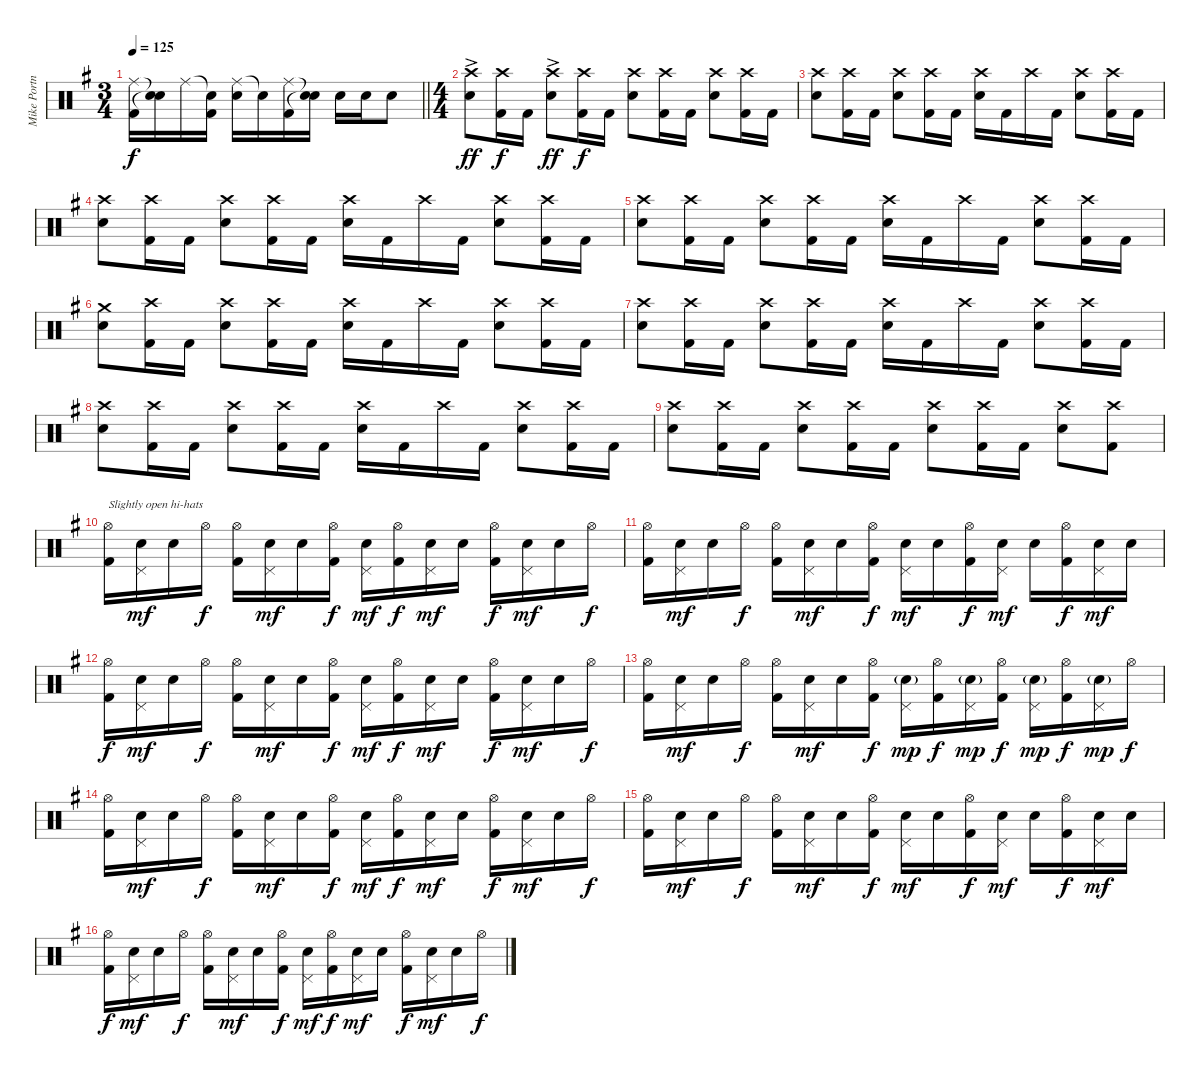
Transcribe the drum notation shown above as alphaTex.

\track ("Mike Portnoy - Drums" "Mike Portn") {instrument percussion}
\staff {score}
\articulation defaults
\ts (3 4)
\tempo 125
\clef neutral
\barLineRight lightlight
\ks g
("Ride (middle)" "Kick (hit) 2").16{dy f} ("Snare (hit)"{t} "Snare (hit)"{t}).16 "Ride (middle)".16 ("Snare (hit)"{t} "Kick (hit) 2").16 ("Ride (middle)" "Snare (hit) 2").16 "Snare (hit)"{t}.16 ("Ride (middle)" "Kick (hit) 2").16 ("Snare (hit)"{t} "Snare (hit)"{t}).16 "Snare (hit) 2".16 "Snare (hit) 2".16 "Snare (hit) 2".8 |
\ts (4 4)
("Crash high (hit)"{ac} "Electric Snare (hit)").8{dy ff} ("Crash high (hit)" "Kick (hit) 2").16{dy f} "Kick (hit) 2".16 ("Crash high (hit)"{ac} "Electric Snare (hit)").8{dy ff} ("Crash high (hit)" "Kick (hit) 2").16{dy f} "Kick (hit) 2".16 ("Crash high (hit)" "Electric Snare (hit)").8 ("Crash high (hit)" "Kick (hit) 2").16 "Kick (hit) 2".16 ("Crash high (hit)" "Electric Snare (hit)").8 ("Crash high (hit)" "Kick (hit) 2").16 "Kick (hit) 2".16 |
("Crash high (hit)" "Electric Snare (hit)").8 ("Crash high (hit)" "Kick (hit) 2").16 "Kick (hit) 2".16 ("Crash high (hit)" "Electric Snare (hit)").8 ("Crash high (hit)" "Kick (hit) 2").16 "Kick (hit) 2".16 ("Crash high (hit)" "Electric Snare (hit)").16 "Kick (hit) 2".16 "Crash high (hit)".16 "Kick (hit) 2".16 ("Crash high (hit)" "Electric Snare (hit)").8 ("Crash high (hit)" "Kick (hit) 2").16 "Kick (hit) 2".16 |
("Crash high (hit)" "Electric Snare (hit)").8 ("Crash high (hit)" "Kick (hit) 2").16 "Kick (hit) 2".16 ("Crash high (hit)" "Electric Snare (hit)").8 ("Crash high (hit)" "Kick (hit) 2").16 "Kick (hit) 2".16 ("Crash high (hit)" "Electric Snare (hit)").16 "Kick (hit) 2".16 "Crash high (hit)".16 "Kick (hit) 2".16 ("Crash high (hit)" "Electric Snare (hit)").8 ("Crash high (hit)" "Kick (hit) 2").16 "Kick (hit) 2".16 |
("Crash high (hit)" "Electric Snare (hit)").8 ("Crash high (hit)" "Kick (hit) 2").16 "Kick (hit) 2".16 ("Crash high (hit)" "Electric Snare (hit)").8 ("Crash high (hit)" "Kick (hit) 2").16 "Kick (hit) 2".16 ("Crash high (hit)" "Electric Snare (hit)").16 "Kick (hit) 2".16 "Crash high (hit)".16 "Kick (hit) 2".16 ("Crash high (hit)" "Electric Snare (hit)").8 ("Crash high (hit)" "Kick (hit) 2").16 "Kick (hit) 2".16 |
("Crash medium (hit)" "Electric Snare (hit)").8 ("Crash high (hit)" "Kick (hit) 2").16 "Kick (hit) 2".16 ("Crash high (hit)" "Electric Snare (hit)").8 ("Crash high (hit)" "Kick (hit) 2").16 "Kick (hit) 2".16 ("Crash high (hit)" "Electric Snare (hit)").16 "Kick (hit) 2".16 "Crash high (hit)".16 "Kick (hit) 2".16 ("Crash high (hit)" "Electric Snare (hit)").8 ("Crash high (hit)" "Kick (hit) 2").16 "Kick (hit) 2".16 |
("Crash high (hit)" "Electric Snare (hit)").8 ("Crash high (hit)" "Kick (hit) 2").16 "Kick (hit) 2".16 ("Crash high (hit)" "Electric Snare (hit)").8 ("Crash high (hit)" "Kick (hit) 2").16 "Kick (hit) 2".16 ("Crash high (hit)" "Electric Snare (hit)").16 "Kick (hit) 2".16 "Crash high (hit)".16 "Kick (hit) 2".16 ("Crash high (hit)" "Electric Snare (hit)").8 ("Crash high (hit)" "Kick (hit) 2").16 "Kick (hit) 2".16 |
("Crash high (hit)" "Electric Snare (hit)").8 ("Crash high (hit)" "Kick (hit) 2").16 "Kick (hit) 2".16 ("Crash high (hit)" "Electric Snare (hit)").8 ("Crash high (hit)" "Kick (hit) 2").16 "Kick (hit) 2".16 ("Crash high (hit)" "Electric Snare (hit)").16 "Kick (hit) 2".16 "Crash high (hit)".16 "Kick (hit) 2".16 ("Crash high (hit)" "Electric Snare (hit)").8 ("Crash high (hit)" "Kick (hit) 2").16 "Kick (hit) 2".16 |
("Crash high (hit)" "Electric Snare (hit)").8 ("Crash high (hit)" "Kick (hit) 2").16 "Kick (hit) 2".16 ("Crash high (hit)" "Electric Snare (hit)").8 ("Crash high (hit)" "Kick (hit) 2").16 "Kick (hit) 2".16 ("Crash high (hit)" "Electric Snare (hit)").8 ("Crash high (hit)" "Kick (hit) 2").16 "Kick (hit) 2".16 ("Crash high (hit)" "Electric Snare (hit)").8 ("Crash high (hit)" "Kick (hit) 2").8 |
("Hi-Hat (open)" "Kick (hit) 2").16{txt "Slightly open hi-hats"} ("Pedal Hi-Hat (hit)" "Electric Snare (hit)").16{dy mf} "Electric Snare (hit)".16 "Hi-Hat (open)".16{dy f} ("Hi-Hat (open)" "Kick (hit) 2").16 ("Pedal Hi-Hat (hit)" "Electric Snare (hit)").16{dy mf} "Electric Snare (hit)".16 ("Hi-Hat (open)" "Kick (hit) 2").16{dy f} ("Pedal Hi-Hat (hit)" "Electric Snare (hit)").16{dy mf} ("Hi-Hat (open)" "Kick (hit) 2").16{dy f} ("Pedal Hi-Hat (hit)" "Electric Snare (hit)").16{dy mf} "Electric Snare (hit)".16 ("Hi-Hat (open)" "Kick (hit) 2").16{dy f} ("Pedal Hi-Hat (hit)" "Electric Snare (hit)").16{dy mf} "Electric Snare (hit)".16 "Hi-Hat (open)".16{dy f} |
("Hi-Hat (open)" "Kick (hit) 2").16 ("Pedal Hi-Hat (hit)" "Electric Snare (hit)").16{dy mf} "Electric Snare (hit)".16 "Hi-Hat (open)".16{dy f} ("Hi-Hat (open)" "Kick (hit) 2").16 ("Pedal Hi-Hat (hit)" "Electric Snare (hit)").16{dy mf} "Electric Snare (hit)".16 ("Hi-Hat (open)" "Kick (hit) 2").16{dy f} ("Pedal Hi-Hat (hit)" "Electric Snare (hit)").16{dy mf} "Electric Snare (hit)".16 ("Hi-Hat (open)" "Kick (hit) 2").16{dy f} ("Pedal Hi-Hat (hit)" "Electric Snare (hit)").16{dy mf} "Electric Snare (hit)".16 ("Hi-Hat (open)" "Kick (hit) 2").16{dy f} ("Pedal Hi-Hat (hit)" "Electric Snare (hit)").16{dy mf} "Electric Snare (hit)".16 |
("Hi-Hat (open)" "Kick (hit) 2").16{dy f} ("Pedal Hi-Hat (hit)" "Electric Snare (hit)").16{dy mf} "Electric Snare (hit)".16 "Hi-Hat (open)".16{dy f} ("Hi-Hat (open)" "Kick (hit) 2").16 ("Pedal Hi-Hat (hit)" "Electric Snare (hit)").16{dy mf} "Electric Snare (hit)".16 ("Hi-Hat (open)" "Kick (hit) 2").16{dy f} ("Pedal Hi-Hat (hit)" "Electric Snare (hit)").16{dy mf} ("Hi-Hat (open)" "Kick (hit) 2").16{dy f} ("Pedal Hi-Hat (hit)" "Electric Snare (hit)").16{dy mf} "Electric Snare (hit)".16 ("Hi-Hat (open)" "Kick (hit) 2").16{dy f} ("Pedal Hi-Hat (hit)" "Electric Snare (hit)").16{dy mf} "Electric Snare (hit)".16 "Hi-Hat (open)".16{dy f} |
("Hi-Hat (open)" "Kick (hit) 2").16 ("Pedal Hi-Hat (hit)" "Electric Snare (hit)").16{dy mf} "Electric Snare (hit)".16 "Hi-Hat (open)".16{dy f} ("Hi-Hat (open)" "Kick (hit) 2").16 ("Pedal Hi-Hat (hit)" "Electric Snare (hit)").16{dy mf} "Electric Snare (hit)".16 ("Hi-Hat (open)" "Kick (hit) 2").16{dy f} ("Pedal Hi-Hat (hit)" "Electric Snare (hit)"{g}).16{dy mp} ("Hi-Hat (open)" "Kick (hit) 2").16{dy f} ("Pedal Hi-Hat (hit)" "Electric Snare (hit)"{g}).16{dy mp} ("Hi-Hat (open)" "Kick (hit) 2").16{dy f} ("Pedal Hi-Hat (hit)" "Electric Snare (hit)"{g}).16{dy mp} ("Hi-Hat (open)" "Kick (hit) 2").16{dy f} ("Pedal Hi-Hat (hit)" "Electric Snare (hit)"{g}).16{dy mp} "Hi-Hat (open)".16{dy f} |
("Hi-Hat (open)" "Kick (hit) 2").16 ("Pedal Hi-Hat (hit)" "Electric Snare (hit)").16{dy mf} "Electric Snare (hit)".16 "Hi-Hat (open)".16{dy f} ("Hi-Hat (open)" "Kick (hit) 2").16 ("Pedal Hi-Hat (hit)" "Electric Snare (hit)").16{dy mf} "Electric Snare (hit)".16 ("Hi-Hat (open)" "Kick (hit) 2").16{dy f} ("Pedal Hi-Hat (hit)" "Electric Snare (hit)").16{dy mf} ("Hi-Hat (open)" "Kick (hit) 2").16{dy f} ("Pedal Hi-Hat (hit)" "Electric Snare (hit)").16{dy mf} "Electric Snare (hit)".16 ("Hi-Hat (open)" "Kick (hit) 2").16{dy f} ("Pedal Hi-Hat (hit)" "Electric Snare (hit)").16{dy mf} "Electric Snare (hit)".16 "Hi-Hat (open)".16{dy f} |
("Hi-Hat (open)" "Kick (hit) 2").16 ("Pedal Hi-Hat (hit)" "Electric Snare (hit)").16{dy mf} "Electric Snare (hit)".16 "Hi-Hat (open)".16{dy f} ("Hi-Hat (open)" "Kick (hit) 2").16 ("Pedal Hi-Hat (hit)" "Electric Snare (hit)").16{dy mf} "Electric Snare (hit)".16 ("Hi-Hat (open)" "Kick (hit) 2").16{dy f} ("Pedal Hi-Hat (hit)" "Electric Snare (hit)").16{dy mf} "Electric Snare (hit)".16 ("Hi-Hat (open)" "Kick (hit) 2").16{dy f} ("Pedal Hi-Hat (hit)" "Electric Snare (hit)").16{dy mf} "Electric Snare (hit)".16 ("Hi-Hat (open)" "Kick (hit) 2").16{dy f} ("Pedal Hi-Hat (hit)" "Electric Snare (hit)").16{dy mf} "Electric Snare (hit)".16 |
("Hi-Hat (open)" "Kick (hit) 2").16{dy f} ("Pedal Hi-Hat (hit)" "Electric Snare (hit)").16{dy mf} "Electric Snare (hit)".16 "Hi-Hat (open)".16{dy f} ("Hi-Hat (open)" "Kick (hit) 2").16 ("Pedal Hi-Hat (hit)" "Electric Snare (hit)").16{dy mf} "Electric Snare (hit)".16 ("Hi-Hat (open)" "Kick (hit) 2").16{dy f} ("Pedal Hi-Hat (hit)" "Electric Snare (hit)").16{dy mf} ("Hi-Hat (open)" "Kick (hit) 2").16{dy f} ("Pedal Hi-Hat (hit)" "Electric Snare (hit)").16{dy mf} "Electric Snare (hit)".16 ("Hi-Hat (open)" "Kick (hit) 2").16{dy f} ("Pedal Hi-Hat (hit)" "Electric Snare (hit)").16{dy mf} "Electric Snare (hit)".16 "Hi-Hat (open)".16{dy f}
